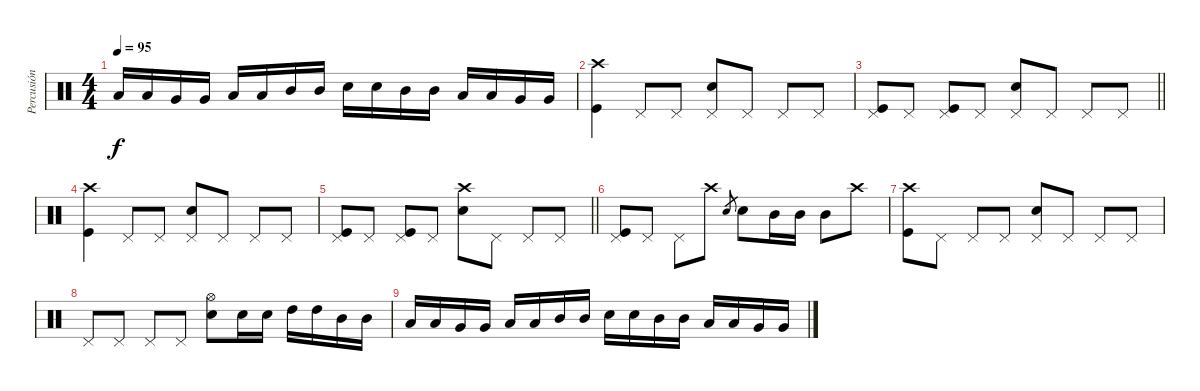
\track ("Percusión" "Percusión") {instrument percussion}
\staff {score}
\articulation defaults
\ts (4 4)
\tempo 95
\clef neutral
\ks c "Low Tom (hit)".16{dy f} "Low Tom (hit)".16 "Very Low Tom (hit)".16 "Very Low Tom (hit)".16 "Low Tom (hit)".16 "Low Tom (hit)".16 "Mid Tom (hit)".16 "Mid Tom (hit)".16 "Electric Snare (hit)".16 "Electric Snare (hit)".16 "Mid Tom (hit)".16 "Mid Tom (hit)".16 "Low Tom (hit)".16 "Low Tom (hit)".16 "Very Low Tom (hit)".16 "Very Low Tom (hit)".16
|
("Crash high (hit)" "Kick (hit)").4 "Pedal Hi-Hat (hit)".8 "Pedal Hi-Hat (hit)".8 ("Pedal Hi-Hat (hit)" "Electric Snare (hit)").8 "Pedal Hi-Hat (hit)".8 "Pedal Hi-Hat (hit)".8 "Pedal Hi-Hat (hit)".8 |
\barLineRight lightlight
("Pedal Hi-Hat (hit)" "Kick (hit)").8 "Pedal Hi-Hat (hit)".8 ("Pedal Hi-Hat (hit)" "Kick (hit)").8 "Pedal Hi-Hat (hit)".8 ("Pedal Hi-Hat (hit)" "Electric Snare (hit)").8 "Pedal Hi-Hat (hit)".8 "Pedal Hi-Hat (hit)".8 "Pedal Hi-Hat (hit)".8 |
("Crash high (hit)" "Kick (hit)").4 "Pedal Hi-Hat (hit)".8 "Pedal Hi-Hat (hit)".8 ("Pedal Hi-Hat (hit)" "Electric Snare (hit)").8 "Pedal Hi-Hat (hit)".8 "Pedal Hi-Hat (hit)".8 "Pedal Hi-Hat (hit)".8 |
\barLineRight lightlight
("Pedal Hi-Hat (hit)" "Kick (hit)").8 "Pedal Hi-Hat (hit)".8 ("Pedal Hi-Hat (hit)" "Kick (hit)").8 "Pedal Hi-Hat (hit)".8 ("Crash high (hit)" "Electric Snare (hit)").8 "Pedal Hi-Hat (hit)".8 "Pedal Hi-Hat (hit)".8 "Pedal Hi-Hat (hit)".8 |
("Pedal Hi-Hat (hit)" "Kick (hit)").8 "Pedal Hi-Hat (hit)".8 "Pedal Hi-Hat (hit)".8 "Crash high (hit)".8 "Electric Snare (hit)".8{gr} "Electric Snare (hit)".8 "Mid Tom (hit)".16 "Mid Tom (hit)".16 "Mid Tom (hit)".8 "Crash high (hit)".8 |
("Crash high (hit)" "Kick (hit)").8 "Pedal Hi-Hat (hit)".8 "Pedal Hi-Hat (hit)".8 "Pedal Hi-Hat (hit)".8 ("Pedal Hi-Hat (hit)" "Electric Snare (hit)").8 "Pedal Hi-Hat (hit)".8 "Pedal Hi-Hat (hit)".8 "Pedal Hi-Hat (hit)".8 |
"Pedal Hi-Hat (hit)".8 "Pedal Hi-Hat (hit)".8 "Pedal Hi-Hat (hit)".8 "Pedal Hi-Hat (hit)".8 ("Hi-Hat (open)" "Electric Snare (hit)").8 "Electric Snare (hit)".16 "Electric Snare (hit)".16 "High Tom (hit)".16 "High Tom (hit)".16 "Mid Tom (hit)".16 "Mid Tom (hit)".16 |
"Low Tom (hit)".16 "Low Tom (hit)".16 "Very Low Tom (hit)".16 "Very Low Tom (hit)".16 "Low Tom (hit)".16 "Low Tom (hit)".16 "Mid Tom (hit)".16 "Mid Tom (hit)".16 "Electric Snare (hit)".16 "Electric Snare (hit)".16 "Mid Tom (hit)".16 "Mid Tom (hit)".16 "Low Tom (hit)".16 "Low Tom (hit)".16 "Very Low Tom (hit)".16 "Very Low Tom (hit)".16
